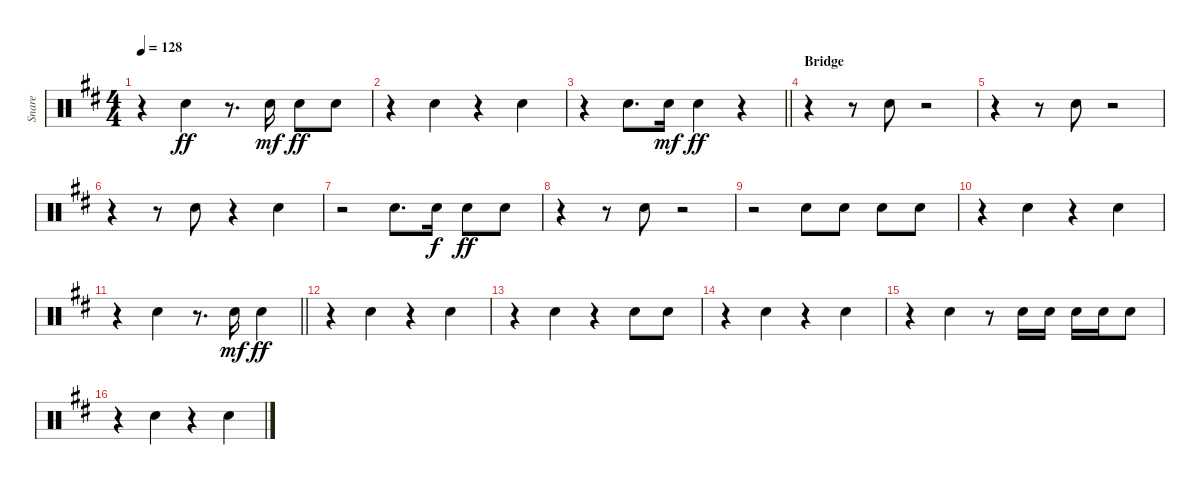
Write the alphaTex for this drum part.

\track ("Snare" "Snare") {instrument percussion}
\staff {score}
\articulation defaults
\ts (4 4)
\tempo 128
\clef neutral
\ks bminor
r.4{dy ff beam merge} "Electric Snare (hit)".4 r.8{d} "Electric Snare (hit)".16{dy mf beam split} "Electric Snare (hit)".8{dy ff} "Electric Snare (hit)".8 |
r.4{beam merge} "Electric Snare (hit)".4 r.4{beam merge} "Electric Snare (hit)".4 |
\barLineRight lightlight
r.4{beam merge} "Electric Snare (hit)".8{d} "Electric Snare (hit)".16{dy mf} "Electric Snare (hit)".4{dy ff} r.4 |
\section ("" "Bridge")
r.4 r.8 "Electric Snare (hit)".8 r.2 |
r.4 r.8 "Electric Snare (hit)".8 r.2 |
r.4 r.8 "Electric Snare (hit)".8 r.4 "Electric Snare (hit)".4 |
r.2 "Electric Snare (hit)".8{d} "Electric Snare (hit)".16{dy f} "Electric Snare (hit)".8{dy ff} "Electric Snare (hit)".8 |
r.4 r.8 "Electric Snare (hit)".8 r.2 |
r.2 "Electric Snare (hit)".8 "Electric Snare (hit)".8 "Electric Snare (hit)".8 "Electric Snare (hit)".8 |
r.4{beam merge} "Electric Snare (hit)".4 r.4{beam merge} "Electric Snare (hit)".4 |
\barLineRight lightlight
r.4{beam merge} "Electric Snare (hit)".4 r.8{d} "Electric Snare (hit)".16{dy mf} "Electric Snare (hit)".4{dy ff} |
r.4{beam merge} "Electric Snare (hit)".4 r.4{beam merge} "Electric Snare (hit)".4 |
r.4{beam merge} "Electric Snare (hit)".4 r.4{beam merge} "Electric Snare (hit)".8 "Electric Snare (hit)".8 |
r.4{beam merge} "Electric Snare (hit)".4 r.4{beam merge} "Electric Snare (hit)".4 |
r.4{beam merge} "Electric Snare (hit)".4 r.8 "Electric Snare (hit)".16 "Electric Snare (hit)".16 "Electric Snare (hit)".16 "Electric Snare (hit)".16 "Electric Snare (hit)".8 |
r.4{beam merge} "Electric Snare (hit)".4 r.4{beam merge} "Electric Snare (hit)".4
